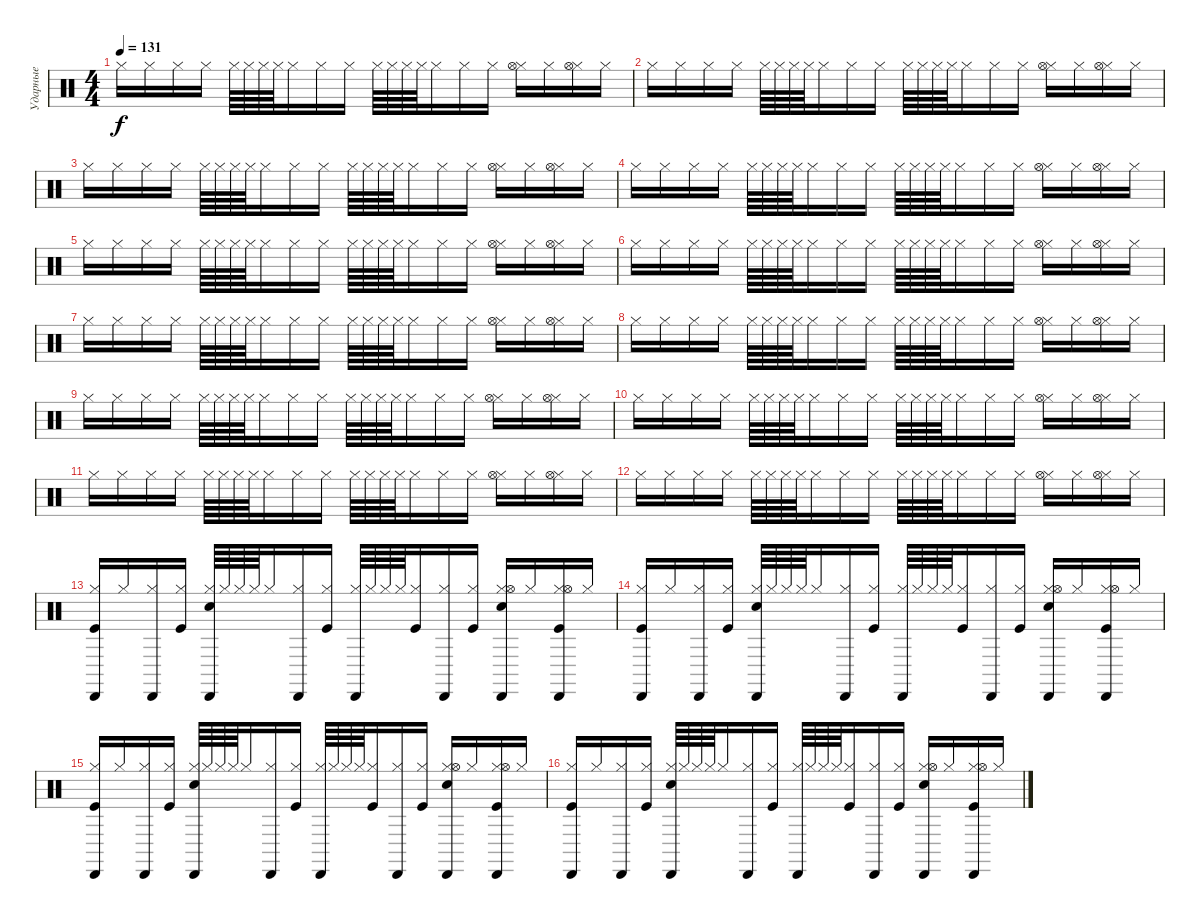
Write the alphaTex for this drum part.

\track ("Ударные" "Ударные") {instrument percussion}
\staff {score}
\articulation defaults
\ts (4 4)
\tempo 131
\clef neutral
\ks c "Hi-Hat (closed)".16{dy f} "Hi-Hat (closed)".16 "Hi-Hat (closed)".16 "Hi-Hat (closed)".16 "Hi-Hat (closed)".64 "Hi-Hat (closed)".64 "Hi-Hat (closed)".64 "Hi-Hat (closed)".64 "Hi-Hat (closed)".16 "Hi-Hat (closed)".16 "Hi-Hat (closed)".16 "Hi-Hat (closed)".64 "Hi-Hat (closed)".64 "Hi-Hat (closed)".64 "Hi-Hat (closed)".64 "Hi-Hat (closed)".16 "Hi-Hat (closed)".16 "Hi-Hat (closed)".16
("Hi-Hat (closed)" "Hi-Hat (open)").16 "Hi-Hat (closed)".16 ("Hi-Hat (closed)" "Hi-Hat (open)").16 "Hi-Hat (closed)".16 |
"Hi-Hat (closed)".16 "Hi-Hat (closed)".16 "Hi-Hat (closed)".16 "Hi-Hat (closed)".16 "Hi-Hat (closed)".64 "Hi-Hat (closed)".64 "Hi-Hat (closed)".64 "Hi-Hat (closed)".64 "Hi-Hat (closed)".16 "Hi-Hat (closed)".16 "Hi-Hat (closed)".16 "Hi-Hat (closed)".64 "Hi-Hat (closed)".64 "Hi-Hat (closed)".64 "Hi-Hat (closed)".64 "Hi-Hat (closed)".16 "Hi-Hat (closed)".16 "Hi-Hat (closed)".16 ("Hi-Hat (closed)" "Hi-Hat (open)").16 "Hi-Hat (closed)".16 ("Hi-Hat (closed)" "Hi-Hat (open)").16 "Hi-Hat (closed)".16 |
"Hi-Hat (closed)".16 "Hi-Hat (closed)".16 "Hi-Hat (closed)".16 "Hi-Hat (closed)".16 "Hi-Hat (closed)".64 "Hi-Hat (closed)".64 "Hi-Hat (closed)".64 "Hi-Hat (closed)".64 "Hi-Hat (closed)".16 "Hi-Hat (closed)".16 "Hi-Hat (closed)".16 "Hi-Hat (closed)".64 "Hi-Hat (closed)".64 "Hi-Hat (closed)".64 "Hi-Hat (closed)".64 "Hi-Hat (closed)".16 "Hi-Hat (closed)".16 "Hi-Hat (closed)".16 ("Hi-Hat (closed)" "Hi-Hat (open)").16 "Hi-Hat (closed)".16 ("Hi-Hat (closed)" "Hi-Hat (open)").16 "Hi-Hat (closed)".16 |
"Hi-Hat (closed)".16 "Hi-Hat (closed)".16 "Hi-Hat (closed)".16 "Hi-Hat (closed)".16 "Hi-Hat (closed)".64 "Hi-Hat (closed)".64 "Hi-Hat (closed)".64 "Hi-Hat (closed)".64 "Hi-Hat (closed)".16 "Hi-Hat (closed)".16 "Hi-Hat (closed)".16 "Hi-Hat (closed)".64 "Hi-Hat (closed)".64 "Hi-Hat (closed)".64 "Hi-Hat (closed)".64 "Hi-Hat (closed)".16 "Hi-Hat (closed)".16 "Hi-Hat (closed)".16 ("Hi-Hat (closed)" "Hi-Hat (open)").16 "Hi-Hat (closed)".16 ("Hi-Hat (closed)" "Hi-Hat (open)").16 "Hi-Hat (closed)".16 |
"Hi-Hat (closed)".16 "Hi-Hat (closed)".16 "Hi-Hat (closed)".16 "Hi-Hat (closed)".16 "Hi-Hat (closed)".64 "Hi-Hat (closed)".64 "Hi-Hat (closed)".64 "Hi-Hat (closed)".64 "Hi-Hat (closed)".16 "Hi-Hat (closed)".16 "Hi-Hat (closed)".16 "Hi-Hat (closed)".64 "Hi-Hat (closed)".64 "Hi-Hat (closed)".64 "Hi-Hat (closed)".64 "Hi-Hat (closed)".16 "Hi-Hat (closed)".16 "Hi-Hat (closed)".16 ("Hi-Hat (closed)" "Hi-Hat (open)").16 "Hi-Hat (closed)".16 ("Hi-Hat (closed)" "Hi-Hat (open)").16 "Hi-Hat (closed)".16 |
"Hi-Hat (closed)".16 "Hi-Hat (closed)".16 "Hi-Hat (closed)".16 "Hi-Hat (closed)".16 "Hi-Hat (closed)".64 "Hi-Hat (closed)".64 "Hi-Hat (closed)".64 "Hi-Hat (closed)".64 "Hi-Hat (closed)".16 "Hi-Hat (closed)".16 "Hi-Hat (closed)".16 "Hi-Hat (closed)".64 "Hi-Hat (closed)".64 "Hi-Hat (closed)".64 "Hi-Hat (closed)".64 "Hi-Hat (closed)".16 "Hi-Hat (closed)".16 "Hi-Hat (closed)".16 ("Hi-Hat (closed)" "Hi-Hat (open)").16 "Hi-Hat (closed)".16 ("Hi-Hat (closed)" "Hi-Hat (open)").16 "Hi-Hat (closed)".16 |
"Hi-Hat (closed)".16 "Hi-Hat (closed)".16 "Hi-Hat (closed)".16 "Hi-Hat (closed)".16 "Hi-Hat (closed)".64 "Hi-Hat (closed)".64 "Hi-Hat (closed)".64 "Hi-Hat (closed)".64 "Hi-Hat (closed)".16 "Hi-Hat (closed)".16 "Hi-Hat (closed)".16 "Hi-Hat (closed)".64 "Hi-Hat (closed)".64 "Hi-Hat (closed)".64 "Hi-Hat (closed)".64 "Hi-Hat (closed)".16 "Hi-Hat (closed)".16 "Hi-Hat (closed)".16 ("Hi-Hat (closed)" "Hi-Hat (open)").16 "Hi-Hat (closed)".16 ("Hi-Hat (closed)" "Hi-Hat (open)").16 "Hi-Hat (closed)".16 |
"Hi-Hat (closed)".16 "Hi-Hat (closed)".16 "Hi-Hat (closed)".16 "Hi-Hat (closed)".16 "Hi-Hat (closed)".64 "Hi-Hat (closed)".64 "Hi-Hat (closed)".64 "Hi-Hat (closed)".64 "Hi-Hat (closed)".16 "Hi-Hat (closed)".16 "Hi-Hat (closed)".16 "Hi-Hat (closed)".64 "Hi-Hat (closed)".64 "Hi-Hat (closed)".64 "Hi-Hat (closed)".64 "Hi-Hat (closed)".16 "Hi-Hat (closed)".16 "Hi-Hat (closed)".16 ("Hi-Hat (closed)" "Hi-Hat (open)").16 "Hi-Hat (closed)".16 ("Hi-Hat (closed)" "Hi-Hat (open)").16 "Hi-Hat (closed)".16 |
"Hi-Hat (closed)".16 "Hi-Hat (closed)".16 "Hi-Hat (closed)".16 "Hi-Hat (closed)".16 "Hi-Hat (closed)".64 "Hi-Hat (closed)".64 "Hi-Hat (closed)".64 "Hi-Hat (closed)".64 "Hi-Hat (closed)".16 "Hi-Hat (closed)".16 "Hi-Hat (closed)".16 "Hi-Hat (closed)".64 "Hi-Hat (closed)".64 "Hi-Hat (closed)".64 "Hi-Hat (closed)".64 "Hi-Hat (closed)".16 "Hi-Hat (closed)".16 "Hi-Hat (closed)".16 ("Hi-Hat (closed)" "Hi-Hat (open)").16 "Hi-Hat (closed)".16 ("Hi-Hat (closed)" "Hi-Hat (open)").16 "Hi-Hat (closed)".16 |
"Hi-Hat (closed)".16 "Hi-Hat (closed)".16 "Hi-Hat (closed)".16 "Hi-Hat (closed)".16 "Hi-Hat (closed)".64 "Hi-Hat (closed)".64 "Hi-Hat (closed)".64 "Hi-Hat (closed)".64 "Hi-Hat (closed)".16 "Hi-Hat (closed)".16 "Hi-Hat (closed)".16 "Hi-Hat (closed)".64 "Hi-Hat (closed)".64 "Hi-Hat (closed)".64 "Hi-Hat (closed)".64 "Hi-Hat (closed)".16 "Hi-Hat (closed)".16 "Hi-Hat (closed)".16 ("Hi-Hat (closed)" "Hi-Hat (open)").16 "Hi-Hat (closed)".16 ("Hi-Hat (closed)" "Hi-Hat (open)").16 "Hi-Hat (closed)".16 |
"Hi-Hat (closed)".16 "Hi-Hat (closed)".16 "Hi-Hat (closed)".16 "Hi-Hat (closed)".16 "Hi-Hat (closed)".64 "Hi-Hat (closed)".64 "Hi-Hat (closed)".64 "Hi-Hat (closed)".64 "Hi-Hat (closed)".16 "Hi-Hat (closed)".16 "Hi-Hat (closed)".16 "Hi-Hat (closed)".64 "Hi-Hat (closed)".64 "Hi-Hat (closed)".64 "Hi-Hat (closed)".64 "Hi-Hat (closed)".16 "Hi-Hat (closed)".16 "Hi-Hat (closed)".16 ("Hi-Hat (closed)" "Hi-Hat (open)").16 "Hi-Hat (closed)".16 ("Hi-Hat (closed)" "Hi-Hat (open)").16 "Hi-Hat (closed)".16 |
"Hi-Hat (closed)".16 "Hi-Hat (closed)".16 "Hi-Hat (closed)".16 "Hi-Hat (closed)".16 "Hi-Hat (closed)".64 "Hi-Hat (closed)".64 "Hi-Hat (closed)".64 "Hi-Hat (closed)".64 "Hi-Hat (closed)".16 "Hi-Hat (closed)".16 "Hi-Hat (closed)".16 "Hi-Hat (closed)".64 "Hi-Hat (closed)".64 "Hi-Hat (closed)".64 "Hi-Hat (closed)".64 "Hi-Hat (closed)".16 "Hi-Hat (closed)".16 "Hi-Hat (closed)".16 ("Hi-Hat (closed)" "Hi-Hat (open)").16 "Hi-Hat (closed)".16 ("Hi-Hat (closed)" "Hi-Hat (open)").16 "Hi-Hat (closed)".16 |
("Hi-Hat (closed)" "Kick (hit)" "Cabasa (hit)").16 "Hi-Hat (closed)".16 ("Hi-Hat (closed)" "Cabasa (hit)").16 ("Hi-Hat (closed)" "Kick (hit)").16 ("Hi-Hat (closed)" "Snare (hit) 2" "Cabasa (hit)").64 "Hi-Hat (closed)".64 "Hi-Hat (closed)".64 "Hi-Hat (closed)".64 "Hi-Hat (closed)".16 ("Hi-Hat (closed)" "Cabasa (hit)").16 ("Hi-Hat (closed)" "Kick (hit)").16 ("Hi-Hat (closed)" "Cabasa (hit)").64 "Hi-Hat (closed)".64 "Hi-Hat (closed)".64 "Hi-Hat (closed)".64 ("Hi-Hat (closed)" "Kick (hit)").16 ("Hi-Hat (closed)" "Cabasa (hit)").16 ("Hi-Hat (closed)" "Kick (hit)").16 ("Hi-Hat (closed)" "Hi-Hat (open)" "Snare (hit) 2" "Cabasa (hit)").16 "Hi-Hat (closed)".16 ("Hi-Hat (closed)" "Hi-Hat (open)" "Kick (hit)" "Cabasa (hit)").16 "Hi-Hat (closed)".16 |
("Hi-Hat (closed)" "Kick (hit)" "Cabasa (hit)").16 "Hi-Hat (closed)".16 ("Hi-Hat (closed)" "Cabasa (hit)").16 ("Hi-Hat (closed)" "Kick (hit)").16 ("Hi-Hat (closed)" "Snare (hit) 2" "Cabasa (hit)").64 "Hi-Hat (closed)".64 "Hi-Hat (closed)".64 "Hi-Hat (closed)".64 "Hi-Hat (closed)".16 ("Hi-Hat (closed)" "Cabasa (hit)").16 ("Hi-Hat (closed)" "Kick (hit)").16 ("Hi-Hat (closed)" "Cabasa (hit)").64 "Hi-Hat (closed)".64 "Hi-Hat (closed)".64 "Hi-Hat (closed)".64 ("Hi-Hat (closed)" "Kick (hit)").16 ("Hi-Hat (closed)" "Cabasa (hit)").16 ("Hi-Hat (closed)" "Kick (hit)").16 ("Hi-Hat (closed)" "Hi-Hat (open)" "Snare (hit) 2" "Cabasa (hit)").16 "Hi-Hat (closed)".16 ("Hi-Hat (closed)" "Hi-Hat (open)" "Kick (hit)" "Cabasa (hit)").16 "Hi-Hat (closed)".16 |
("Hi-Hat (closed)" "Kick (hit)" "Cabasa (hit)").16 "Hi-Hat (closed)".16 ("Hi-Hat (closed)" "Cabasa (hit)").16 ("Hi-Hat (closed)" "Kick (hit)").16 ("Hi-Hat (closed)" "Snare (hit) 2" "Cabasa (hit)").64 "Hi-Hat (closed)".64 "Hi-Hat (closed)".64 "Hi-Hat (closed)".64 "Hi-Hat (closed)".16 ("Hi-Hat (closed)" "Cabasa (hit)").16 ("Hi-Hat (closed)" "Kick (hit)").16 ("Hi-Hat (closed)" "Cabasa (hit)").64 "Hi-Hat (closed)".64 "Hi-Hat (closed)".64 "Hi-Hat (closed)".64 ("Hi-Hat (closed)" "Kick (hit)").16 ("Hi-Hat (closed)" "Cabasa (hit)").16 ("Hi-Hat (closed)" "Kick (hit)").16 ("Hi-Hat (closed)" "Hi-Hat (open)" "Snare (hit) 2" "Cabasa (hit)").16 "Hi-Hat (closed)".16 ("Hi-Hat (closed)" "Hi-Hat (open)" "Kick (hit)" "Cabasa (hit)").16 "Hi-Hat (closed)".16 |
("Hi-Hat (closed)" "Kick (hit)" "Cabasa (hit)").16 "Hi-Hat (closed)".16 ("Hi-Hat (closed)" "Cabasa (hit)").16 ("Hi-Hat (closed)" "Kick (hit)").16 ("Hi-Hat (closed)" "Snare (hit) 2" "Cabasa (hit)").64 "Hi-Hat (closed)".64 "Hi-Hat (closed)".64 "Hi-Hat (closed)".64 "Hi-Hat (closed)".16 ("Hi-Hat (closed)" "Cabasa (hit)").16 ("Hi-Hat (closed)" "Kick (hit)").16 ("Hi-Hat (closed)" "Cabasa (hit)").64 "Hi-Hat (closed)".64 "Hi-Hat (closed)".64 "Hi-Hat (closed)".64 ("Hi-Hat (closed)" "Kick (hit)").16 ("Hi-Hat (closed)" "Cabasa (hit)").16 ("Hi-Hat (closed)" "Kick (hit)").16 ("Hi-Hat (closed)" "Hi-Hat (open)" "Snare (hit) 2" "Cabasa (hit)").16 "Hi-Hat (closed)".16 ("Hi-Hat (closed)" "Hi-Hat (open)" "Kick (hit)" "Cabasa (hit)").16 "Hi-Hat (closed)".16
